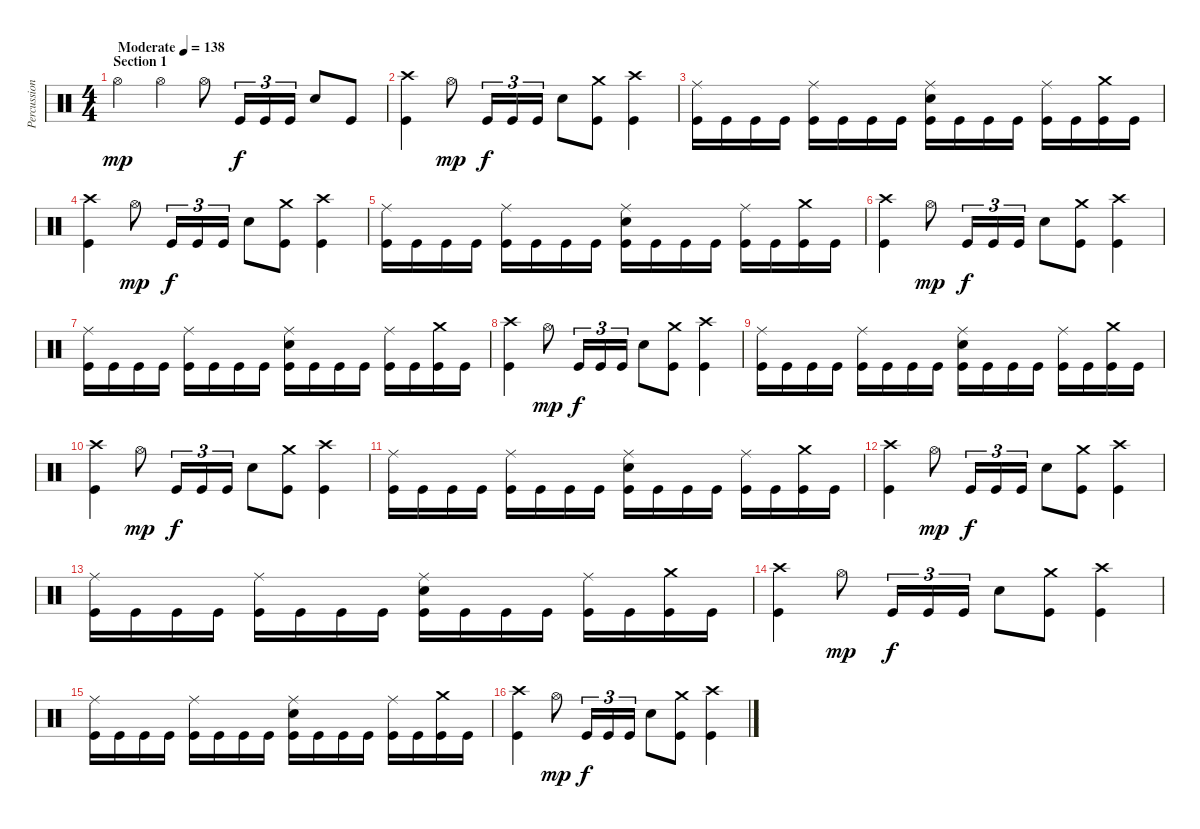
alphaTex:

\track ("Percussion" "Percussion") {instrument percussion}
\staff {score}
\articulation defaults
\ts (4 4)
\section ("" "Section 1")
\tempo (138 "Moderate")
\clef neutral
\ks c "Hi-Hat (open)".4{dy mp} "Hi-Hat (open)".4 "Hi-Hat (open)".8 "Kick (hit)".16{tu (3 2) dy f} "Kick (hit)".16{tu (3 2)} "Kick (hit)".16{tu (3 2)} "Electric Snare (hit)".8 "Kick (hit)".8
|
("Crash high (hit)" "Kick (hit)").4 "Hi-Hat (open)".8{dy mp} "Kick (hit)".16{tu (3 2) dy f} "Kick (hit)".16{tu (3 2)} "Kick (hit)".16{tu (3 2)} "Electric Snare (hit)".8 ("Crash medium (hit)" "Kick (hit)").8 ("Crash high (hit)" "Kick (hit)").4 |
("Ride (middle)" "Kick (hit)").16 "Kick (hit)".16 "Kick (hit)".16 "Kick (hit)".16 ("Ride (middle)" "Kick (hit)").16 "Kick (hit)".16 "Kick (hit)".16 "Kick (hit)".16 ("Ride (middle)" "Electric Snare (hit)" "Kick (hit)").16 "Kick (hit)".16 "Kick (hit)".16 "Kick (hit)".16 ("Ride (middle)" "Kick (hit)").16 "Kick (hit)".16 ("Crash medium (hit)" "Kick (hit)").16 "Kick (hit)".16 |
("Crash high (hit)" "Kick (hit)").4 "Hi-Hat (open)".8{dy mp} "Kick (hit)".16{tu (3 2) dy f} "Kick (hit)".16{tu (3 2)} "Kick (hit)".16{tu (3 2)} "Electric Snare (hit)".8 ("Crash medium (hit)" "Kick (hit)").8 ("Crash high (hit)" "Kick (hit)").4 |
("Ride (middle)" "Kick (hit)").16 "Kick (hit)".16 "Kick (hit)".16 "Kick (hit)".16 ("Ride (middle)" "Kick (hit)").16 "Kick (hit)".16 "Kick (hit)".16 "Kick (hit)".16 ("Ride (middle)" "Electric Snare (hit)" "Kick (hit)").16 "Kick (hit)".16 "Kick (hit)".16 "Kick (hit)".16 ("Ride (middle)" "Kick (hit)").16 "Kick (hit)".16 ("Crash medium (hit)" "Kick (hit)").16 "Kick (hit)".16 |
("Crash high (hit)" "Kick (hit)").4 "Hi-Hat (open)".8{dy mp} "Kick (hit)".16{tu (3 2) dy f} "Kick (hit)".16{tu (3 2)} "Kick (hit)".16{tu (3 2)} "Electric Snare (hit)".8 ("Crash medium (hit)" "Kick (hit)").8 ("Crash high (hit)" "Kick (hit)").4 |
("Ride (middle)" "Kick (hit)").16 "Kick (hit)".16 "Kick (hit)".16 "Kick (hit)".16 ("Ride (middle)" "Kick (hit)").16 "Kick (hit)".16 "Kick (hit)".16 "Kick (hit)".16 ("Ride (middle)" "Electric Snare (hit)" "Kick (hit)").16 "Kick (hit)".16 "Kick (hit)".16 "Kick (hit)".16 ("Ride (middle)" "Kick (hit)").16 "Kick (hit)".16 ("Crash medium (hit)" "Kick (hit)").16 "Kick (hit)".16 |
("Crash high (hit)" "Kick (hit)").4 "Hi-Hat (open)".8{dy mp} "Kick (hit)".16{tu (3 2) dy f} "Kick (hit)".16{tu (3 2)} "Kick (hit)".16{tu (3 2)} "Electric Snare (hit)".8 ("Crash medium (hit)" "Kick (hit)").8 ("Crash high (hit)" "Kick (hit)").4 |
("Ride (middle)" "Kick (hit)").16 "Kick (hit)".16 "Kick (hit)".16 "Kick (hit)".16 ("Ride (middle)" "Kick (hit)").16 "Kick (hit)".16 "Kick (hit)".16 "Kick (hit)".16 ("Ride (middle)" "Electric Snare (hit)" "Kick (hit)").16 "Kick (hit)".16 "Kick (hit)".16 "Kick (hit)".16 ("Ride (middle)" "Kick (hit)").16 "Kick (hit)".16 ("Crash medium (hit)" "Kick (hit)").16 "Kick (hit)".16 |
("Crash high (hit)" "Kick (hit)").4 "Hi-Hat (open)".8{dy mp} "Kick (hit)".16{tu (3 2) dy f} "Kick (hit)".16{tu (3 2)} "Kick (hit)".16{tu (3 2)} "Electric Snare (hit)".8 ("Crash medium (hit)" "Kick (hit)").8 ("Crash high (hit)" "Kick (hit)").4 |
("Ride (middle)" "Kick (hit)").16 "Kick (hit)".16 "Kick (hit)".16 "Kick (hit)".16 ("Ride (middle)" "Kick (hit)").16 "Kick (hit)".16 "Kick (hit)".16 "Kick (hit)".16 ("Ride (middle)" "Electric Snare (hit)" "Kick (hit)").16 "Kick (hit)".16 "Kick (hit)".16 "Kick (hit)".16 ("Ride (middle)" "Kick (hit)").16 "Kick (hit)".16 ("Crash medium (hit)" "Kick (hit)").16 "Kick (hit)".16 |
("Crash high (hit)" "Kick (hit)").4 "Hi-Hat (open)".8{dy mp} "Kick (hit)".16{tu (3 2) dy f} "Kick (hit)".16{tu (3 2)} "Kick (hit)".16{tu (3 2)} "Electric Snare (hit)".8 ("Crash medium (hit)" "Kick (hit)").8 ("Crash high (hit)" "Kick (hit)").4 |
("Ride (middle)" "Kick (hit)").16 "Kick (hit)".16 "Kick (hit)".16 "Kick (hit)".16 ("Ride (middle)" "Kick (hit)").16 "Kick (hit)".16 "Kick (hit)".16 "Kick (hit)".16 ("Ride (middle)" "Electric Snare (hit)" "Kick (hit)").16 "Kick (hit)".16 "Kick (hit)".16 "Kick (hit)".16 ("Ride (middle)" "Kick (hit)").16 "Kick (hit)".16 ("Crash medium (hit)" "Kick (hit)").16 "Kick (hit)".16 |
("Crash high (hit)" "Kick (hit)").4 "Hi-Hat (open)".8{dy mp} "Kick (hit)".16{tu (3 2) dy f} "Kick (hit)".16{tu (3 2)} "Kick (hit)".16{tu (3 2)} "Electric Snare (hit)".8 ("Crash medium (hit)" "Kick (hit)").8 ("Crash high (hit)" "Kick (hit)").4 |
("Ride (middle)" "Kick (hit)").16 "Kick (hit)".16 "Kick (hit)".16 "Kick (hit)".16 ("Ride (middle)" "Kick (hit)").16 "Kick (hit)".16 "Kick (hit)".16 "Kick (hit)".16 ("Ride (middle)" "Electric Snare (hit)" "Kick (hit)").16 "Kick (hit)".16 "Kick (hit)".16 "Kick (hit)".16 ("Ride (middle)" "Kick (hit)").16 "Kick (hit)".16 ("Crash medium (hit)" "Kick (hit)").16 "Kick (hit)".16 |
("Crash high (hit)" "Kick (hit)").4 "Hi-Hat (open)".8{dy mp} "Kick (hit)".16{tu (3 2) dy f} "Kick (hit)".16{tu (3 2)} "Kick (hit)".16{tu (3 2)} "Electric Snare (hit)".8 ("Crash medium (hit)" "Kick (hit)").8 ("Crash high (hit)" "Kick (hit)").4
